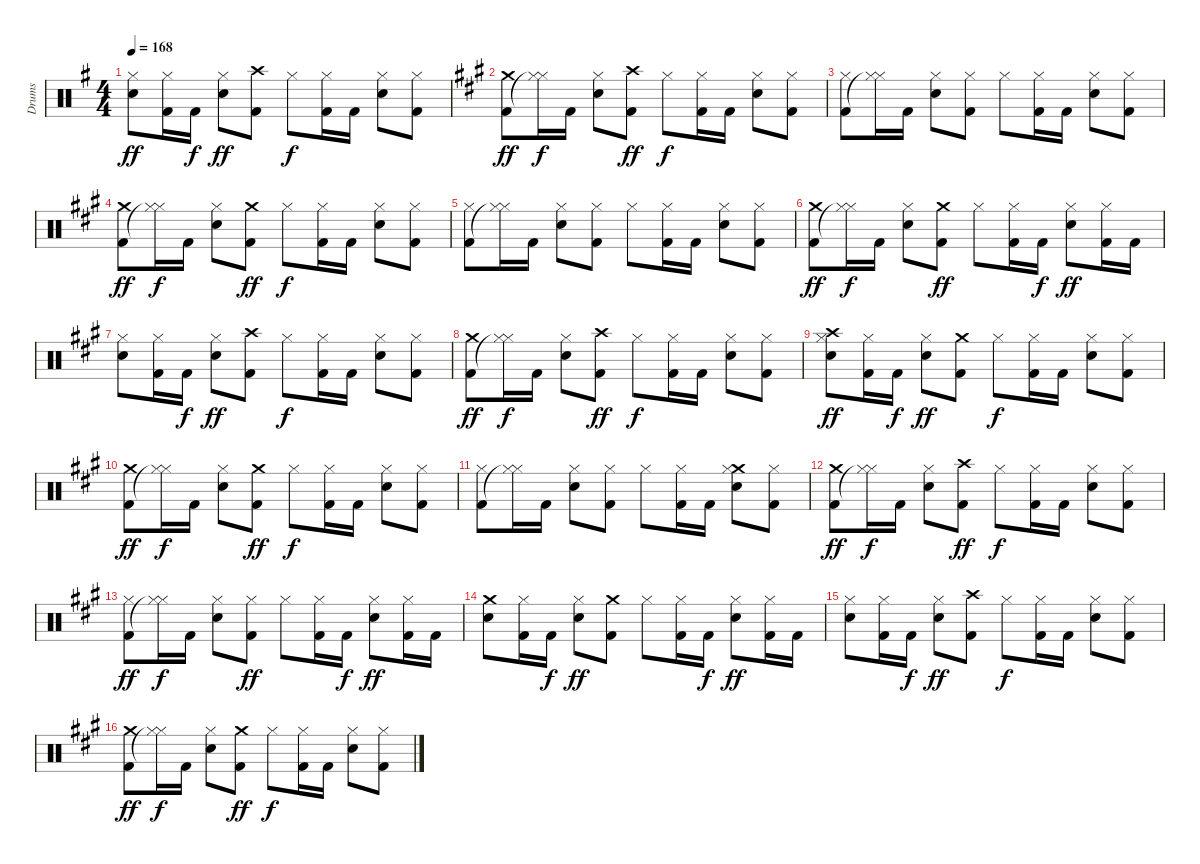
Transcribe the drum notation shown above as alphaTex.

\track ("Drums" "Drums") {instrument percussion}
\staff {score}
\articulation defaults
\ts (4 4)
\tempo 168
\clef neutral
\ks g
("Hi-Hat (closed)" "Snare (hit) 2").8{dy ff} ("Hi-Hat (closed)" "Kick (hit) 2").16 "Kick (hit) 2".16{dy f} ("Hi-Hat (closed)" "Snare (hit) 2").8{dy ff} ("Crash high (hit)" "Kick (hit) 2").8 "Hi-Hat (closed)".8{dy f} ("Hi-Hat (closed)" "Kick (hit) 2").16 "Kick (hit) 2".16 ("Hi-Hat (closed)" "Snare (hit) 2").8 ("Hi-Hat (closed)" "Kick (hit) 2").8 |
\ks a
("Crash medium (hit)" "Kick (hit) 2").8{dy ff} ("Hi-Hat (closed)" "Hi-Hat (closed)"{t}).16{dy f} "Kick (hit) 2".16 ("Hi-Hat (closed)" "Snare (hit) 2").8 ("Crash high (hit)" "Kick (hit) 2").8{dy ff} "Hi-Hat (closed)".8{dy f} ("Hi-Hat (closed)" "Kick (hit) 2").16 "Kick (hit) 2".16 ("Hi-Hat (closed)" "Snare (hit) 2").8 ("Hi-Hat (closed)" "Kick (hit) 2").8 |
("Hi-Hat (closed)" "Kick (hit) 2").8 ("Hi-Hat (closed)" "Hi-Hat (closed)"{t}).16 "Kick (hit) 2".16 ("Hi-Hat (closed)" "Snare (hit) 2").8 ("Hi-Hat (closed)" "Kick (hit) 2").8 "Hi-Hat (closed)".8 ("Hi-Hat (closed)" "Kick (hit) 2").16 "Kick (hit) 2".16 ("Hi-Hat (closed)" "Snare (hit) 2").8 ("Hi-Hat (closed)" "Kick (hit) 2").8 |
("Crash medium (hit)" "Kick (hit) 2").8{dy ff} ("Hi-Hat (closed)" "Hi-Hat (closed)"{t}).16{dy f} "Kick (hit) 2".16 ("Hi-Hat (closed)" "Snare (hit) 2").8 ("Crash medium (hit)" "Kick (hit) 2").8{dy ff} "Hi-Hat (closed)".8{dy f} ("Hi-Hat (closed)" "Kick (hit) 2").16 "Kick (hit) 2".16 ("Hi-Hat (closed)" "Snare (hit) 2").8 ("Hi-Hat (closed)" "Kick (hit) 2").8 |
("Hi-Hat (closed)" "Kick (hit) 2").8 ("Hi-Hat (closed)" "Hi-Hat (closed)"{t}).16 "Kick (hit) 2".16 ("Hi-Hat (closed)" "Snare (hit) 2").8 ("Hi-Hat (closed)" "Kick (hit) 2").8 "Hi-Hat (closed)".8 ("Hi-Hat (closed)" "Kick (hit) 2").16 "Kick (hit) 2".16 ("Hi-Hat (closed)" "Snare (hit) 2").8 ("Hi-Hat (closed)" "Kick (hit) 2").8 |
("Crash medium (hit)" "Kick (hit) 2").8{dy ff} ("Hi-Hat (closed)" "Hi-Hat (closed)"{t}).16{dy f} "Kick (hit) 2".16 ("Hi-Hat (closed)" "Snare (hit) 2").8 ("Crash medium (hit)" "Kick (hit) 2").8{dy ff} "Hi-Hat (closed)".8 ("Hi-Hat (closed)" "Kick (hit) 2").16 "Kick (hit) 2".16{dy f} ("Hi-Hat (closed)" "Snare (hit) 2").8{dy ff} ("Hi-Hat (closed)" "Kick (hit) 2").16 "Kick (hit) 2".16 |
("Hi-Hat (closed)" "Snare (hit) 2").8 ("Hi-Hat (closed)" "Kick (hit) 2").16 "Kick (hit) 2".16{dy f} ("Hi-Hat (closed)" "Snare (hit) 2").8{dy ff} ("Crash high (hit)" "Kick (hit) 2").8 "Hi-Hat (closed)".8{dy f} ("Hi-Hat (closed)" "Kick (hit) 2").16 "Kick (hit) 2".16 ("Hi-Hat (closed)" "Snare (hit) 2").8 ("Hi-Hat (closed)" "Kick (hit) 2").8 |
("Crash medium (hit)" "Kick (hit) 2").8{dy ff} ("Hi-Hat (closed)" "Hi-Hat (closed)"{t}).16{dy f} "Kick (hit) 2".16 ("Hi-Hat (closed)" "Snare (hit) 2").8 ("Crash high (hit)" "Kick (hit) 2").8{dy ff} "Hi-Hat (closed)".8{dy f} ("Hi-Hat (closed)" "Kick (hit) 2").16 "Kick (hit) 2".16 ("Hi-Hat (closed)" "Snare (hit) 2").8 ("Hi-Hat (closed)" "Kick (hit) 2").8 |
("Crash high (hit)" "Hi-Hat (closed)" "Snare (hit) 2").8{dy ff} ("Hi-Hat (closed)" "Kick (hit) 2").16 "Kick (hit) 2".16{dy f} ("Hi-Hat (closed)" "Snare (hit) 2").8{dy ff} ("Crash medium (hit)" "Kick (hit) 2").8 "Hi-Hat (closed)".8{dy f} ("Hi-Hat (closed)" "Kick (hit) 2").16 "Kick (hit) 2".16 ("Hi-Hat (closed)" "Snare (hit) 2").8 ("Hi-Hat (closed)" "Kick (hit) 2").8 |
("Crash medium (hit)" "Kick (hit) 2").8{dy ff} ("Hi-Hat (closed)" "Hi-Hat (closed)"{t}).16{dy f} "Kick (hit) 2".16 ("Hi-Hat (closed)" "Snare (hit) 2").8 ("Crash medium (hit)" "Kick (hit) 2").8{dy ff} "Hi-Hat (closed)".8{dy f} ("Hi-Hat (closed)" "Kick (hit) 2").16 "Kick (hit) 2".16 ("Hi-Hat (closed)" "Snare (hit) 2").8 ("Hi-Hat (closed)" "Kick (hit) 2").8 |
("Hi-Hat (closed)" "Kick (hit) 2").8 ("Hi-Hat (closed)" "Hi-Hat (closed)"{t}).16 "Kick (hit) 2".16 ("Hi-Hat (closed)" "Snare (hit) 2").8 ("Hi-Hat (closed)" "Kick (hit) 2").8 "Hi-Hat (closed)".8 ("Hi-Hat (closed)" "Kick (hit) 2").16 "Kick (hit) 2".16 ("Crash medium (hit)" "Hi-Hat (closed)" "Snare (hit) 2").8 ("Hi-Hat (closed)" "Kick (hit) 2").8 |
("Crash medium (hit)" "Kick (hit) 2").8{dy ff} ("Hi-Hat (closed)" "Hi-Hat (closed)"{t}).16{dy f} "Kick (hit) 2".16 ("Hi-Hat (closed)" "Snare (hit) 2").8 ("Crash high (hit)" "Kick (hit) 2").8{dy ff} "Hi-Hat (closed)".8{dy f} ("Hi-Hat (closed)" "Kick (hit) 2").16 "Kick (hit) 2".16 ("Hi-Hat (closed)" "Snare (hit) 2").8 ("Hi-Hat (closed)" "Kick (hit) 2").8 |
("Hi-Hat (closed)" "Kick (hit) 2").8{dy ff} ("Hi-Hat (closed)" "Hi-Hat (closed)"{t}).16{dy f} "Kick (hit) 2".16 ("Hi-Hat (closed)" "Snare (hit) 2").8 ("Hi-Hat (closed)" "Kick (hit) 2").8{dy ff} "Hi-Hat (closed)".8 ("Hi-Hat (closed)" "Kick (hit) 2").16 "Kick (hit) 2".16{dy f} ("Hi-Hat (closed)" "Snare (hit) 2").8{dy ff} ("Hi-Hat (closed)" "Kick (hit) 2").16 "Kick (hit) 2".16 |
("Crash medium (hit)" "Snare (hit) 2").8 ("Hi-Hat (closed)" "Kick (hit) 2").16 "Kick (hit) 2".16{dy f} ("Hi-Hat (closed)" "Snare (hit) 2").8{dy ff} ("Crash medium (hit)" "Kick (hit) 2").8 "Hi-Hat (closed)".8 ("Hi-Hat (closed)" "Kick (hit) 2").16 "Kick (hit) 2".16{dy f} ("Hi-Hat (closed)" "Snare (hit) 2").8{dy ff} ("Hi-Hat (closed)" "Kick (hit) 2").16 "Kick (hit) 2".16 |
("Hi-Hat (closed)" "Snare (hit) 2").8 ("Hi-Hat (closed)" "Kick (hit) 2").16 "Kick (hit) 2".16{dy f} ("Hi-Hat (closed)" "Snare (hit) 2").8{dy ff} ("Crash high (hit)" "Kick (hit) 2").8 "Hi-Hat (closed)".8{dy f} ("Hi-Hat (closed)" "Kick (hit) 2").16 "Kick (hit) 2".16 ("Hi-Hat (closed)" "Snare (hit) 2").8 ("Hi-Hat (closed)" "Kick (hit) 2").8 |
("Crash medium (hit)" "Kick (hit) 2").8{dy ff} ("Hi-Hat (closed)" "Hi-Hat (closed)"{t}).16{dy f} "Kick (hit) 2".16 ("Hi-Hat (closed)" "Snare (hit) 2").8 ("Crash medium (hit)" "Kick (hit) 2").8{dy ff} "Hi-Hat (closed)".8{dy f} ("Hi-Hat (closed)" "Kick (hit) 2").16 "Kick (hit) 2".16 ("Hi-Hat (closed)" "Snare (hit) 2").8 ("Hi-Hat (closed)" "Kick (hit) 2").8
